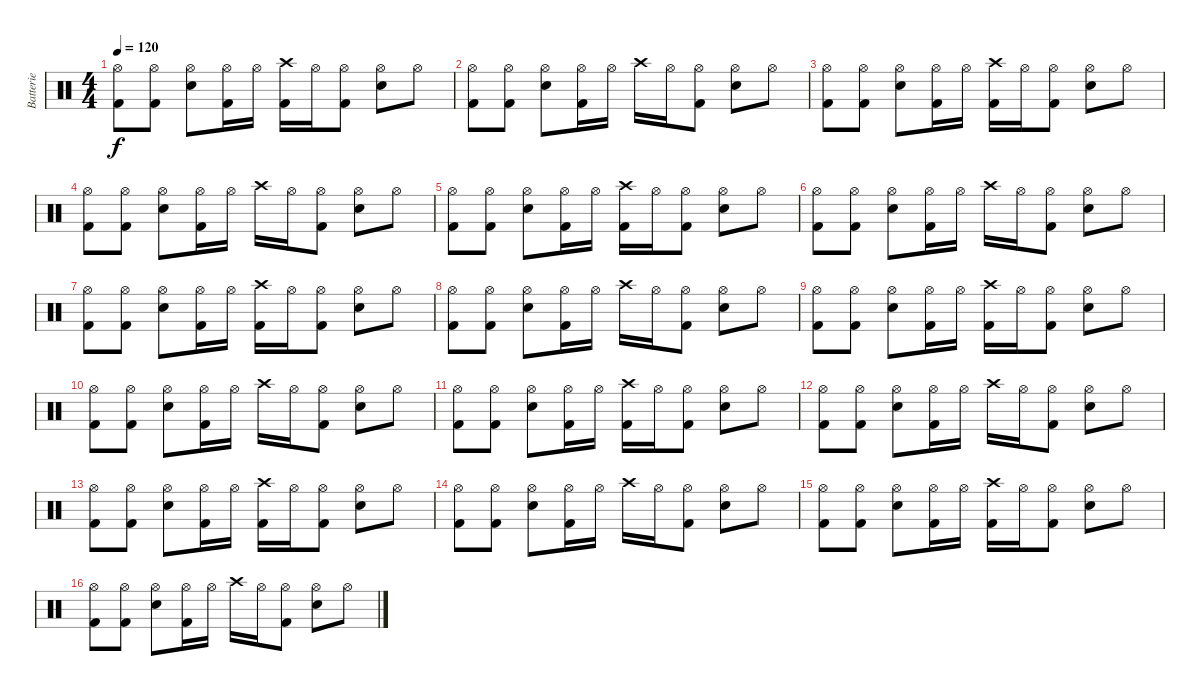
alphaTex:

\track ("Batterie" "Batterie") {instrument percussion}
\staff {score}
\articulation defaults
\ts (4 4)
\tempo 120
\clef neutral
\ks c
("Hi-Hat (open)" "Kick (hit) 2").8{dy f} ("Hi-Hat (open)" "Kick (hit) 2").8 ("Hi-Hat (open)" "Snare (hit) 2").8 ("Hi-Hat (open)" "Kick (hit) 2").16 "Hi-Hat (open)".16 ("Crash high (hit)" "Kick (hit) 2").16 "Hi-Hat (open)".16 ("Hi-Hat (open)" "Kick (hit) 2").8 ("Hi-Hat (open)" "Snare (hit) 2").8 "Hi-Hat (open)".8 |
("Hi-Hat (open)" "Kick (hit) 2").8 ("Hi-Hat (open)" "Kick (hit) 2").8 ("Hi-Hat (open)" "Snare (hit) 2").8 ("Hi-Hat (open)" "Kick (hit) 2").16 "Hi-Hat (open)".16 "Crash high (hit)".16 "Hi-Hat (open)".16 ("Hi-Hat (open)" "Kick (hit) 2").8 ("Hi-Hat (open)" "Snare (hit) 2").8 "Hi-Hat (open)".8 |
("Hi-Hat (open)" "Kick (hit) 2").8 ("Hi-Hat (open)" "Kick (hit) 2").8 ("Hi-Hat (open)" "Snare (hit) 2").8 ("Hi-Hat (open)" "Kick (hit) 2").16 "Hi-Hat (open)".16 ("Crash high (hit)" "Kick (hit) 2").16 "Hi-Hat (open)".16 ("Hi-Hat (open)" "Kick (hit) 2").8 ("Hi-Hat (open)" "Snare (hit) 2").8 "Hi-Hat (open)".8 |
("Hi-Hat (open)" "Kick (hit) 2").8 ("Hi-Hat (open)" "Kick (hit) 2").8 ("Hi-Hat (open)" "Snare (hit) 2").8 ("Hi-Hat (open)" "Kick (hit) 2").16 "Hi-Hat (open)".16 "Crash high (hit)".16 "Hi-Hat (open)".16 ("Hi-Hat (open)" "Kick (hit) 2").8 ("Hi-Hat (open)" "Snare (hit) 2").8 "Hi-Hat (open)".8 |
("Hi-Hat (open)" "Kick (hit) 2").8 ("Hi-Hat (open)" "Kick (hit) 2").8 ("Hi-Hat (open)" "Snare (hit) 2").8 ("Hi-Hat (open)" "Kick (hit) 2").16 "Hi-Hat (open)".16 ("Crash high (hit)" "Kick (hit) 2").16 "Hi-Hat (open)".16 ("Hi-Hat (open)" "Kick (hit) 2").8 ("Hi-Hat (open)" "Snare (hit) 2").8 "Hi-Hat (open)".8 |
("Hi-Hat (open)" "Kick (hit) 2").8 ("Hi-Hat (open)" "Kick (hit) 2").8 ("Hi-Hat (open)" "Snare (hit) 2").8 ("Hi-Hat (open)" "Kick (hit) 2").16 "Hi-Hat (open)".16 "Crash high (hit)".16 "Hi-Hat (open)".16 ("Hi-Hat (open)" "Kick (hit) 2").8 ("Hi-Hat (open)" "Snare (hit) 2").8 "Hi-Hat (open)".8 |
("Hi-Hat (open)" "Kick (hit) 2").8 ("Hi-Hat (open)" "Kick (hit) 2").8 ("Hi-Hat (open)" "Snare (hit) 2").8 ("Hi-Hat (open)" "Kick (hit) 2").16 "Hi-Hat (open)".16 ("Crash high (hit)" "Kick (hit) 2").16 "Hi-Hat (open)".16 ("Hi-Hat (open)" "Kick (hit) 2").8 ("Hi-Hat (open)" "Snare (hit) 2").8 "Hi-Hat (open)".8 |
("Hi-Hat (open)" "Kick (hit) 2").8 ("Hi-Hat (open)" "Kick (hit) 2").8 ("Hi-Hat (open)" "Snare (hit) 2").8 ("Hi-Hat (open)" "Kick (hit) 2").16 "Hi-Hat (open)".16 "Crash high (hit)".16 "Hi-Hat (open)".16 ("Hi-Hat (open)" "Kick (hit) 2").8 ("Hi-Hat (open)" "Snare (hit) 2").8 "Hi-Hat (open)".8 |
("Hi-Hat (open)" "Kick (hit) 2").8 ("Hi-Hat (open)" "Kick (hit) 2").8 ("Hi-Hat (open)" "Snare (hit) 2").8 ("Hi-Hat (open)" "Kick (hit) 2").16 "Hi-Hat (open)".16 ("Crash high (hit)" "Kick (hit) 2").16 "Hi-Hat (open)".16 ("Hi-Hat (open)" "Kick (hit) 2").8 ("Hi-Hat (open)" "Snare (hit) 2").8 "Hi-Hat (open)".8 |
("Hi-Hat (open)" "Kick (hit) 2").8 ("Hi-Hat (open)" "Kick (hit) 2").8 ("Hi-Hat (open)" "Snare (hit) 2").8 ("Hi-Hat (open)" "Kick (hit) 2").16 "Hi-Hat (open)".16 "Crash high (hit)".16 "Hi-Hat (open)".16 ("Hi-Hat (open)" "Kick (hit) 2").8 ("Hi-Hat (open)" "Snare (hit) 2").8 "Hi-Hat (open)".8 |
("Hi-Hat (open)" "Kick (hit) 2").8 ("Hi-Hat (open)" "Kick (hit) 2").8 ("Hi-Hat (open)" "Snare (hit) 2").8 ("Hi-Hat (open)" "Kick (hit) 2").16 "Hi-Hat (open)".16 ("Crash high (hit)" "Kick (hit) 2").16 "Hi-Hat (open)".16 ("Hi-Hat (open)" "Kick (hit) 2").8 ("Hi-Hat (open)" "Snare (hit) 2").8 "Hi-Hat (open)".8 |
("Hi-Hat (open)" "Kick (hit) 2").8 ("Hi-Hat (open)" "Kick (hit) 2").8 ("Hi-Hat (open)" "Snare (hit) 2").8 ("Hi-Hat (open)" "Kick (hit) 2").16 "Hi-Hat (open)".16 "Crash high (hit)".16 "Hi-Hat (open)".16 ("Hi-Hat (open)" "Kick (hit) 2").8 ("Hi-Hat (open)" "Snare (hit) 2").8 "Hi-Hat (open)".8 |
("Hi-Hat (open)" "Kick (hit) 2").8 ("Hi-Hat (open)" "Kick (hit) 2").8 ("Hi-Hat (open)" "Snare (hit) 2").8 ("Hi-Hat (open)" "Kick (hit) 2").16 "Hi-Hat (open)".16 ("Crash high (hit)" "Kick (hit) 2").16 "Hi-Hat (open)".16 ("Hi-Hat (open)" "Kick (hit) 2").8 ("Hi-Hat (open)" "Snare (hit) 2").8 "Hi-Hat (open)".8 |
("Hi-Hat (open)" "Kick (hit) 2").8 ("Hi-Hat (open)" "Kick (hit) 2").8 ("Hi-Hat (open)" "Snare (hit) 2").8 ("Hi-Hat (open)" "Kick (hit) 2").16 "Hi-Hat (open)".16 "Crash high (hit)".16 "Hi-Hat (open)".16 ("Hi-Hat (open)" "Kick (hit) 2").8 ("Hi-Hat (open)" "Snare (hit) 2").8 "Hi-Hat (open)".8 |
("Hi-Hat (open)" "Kick (hit) 2").8 ("Hi-Hat (open)" "Kick (hit) 2").8 ("Hi-Hat (open)" "Snare (hit) 2").8 ("Hi-Hat (open)" "Kick (hit) 2").16 "Hi-Hat (open)".16 ("Crash high (hit)" "Kick (hit) 2").16 "Hi-Hat (open)".16 ("Hi-Hat (open)" "Kick (hit) 2").8 ("Hi-Hat (open)" "Snare (hit) 2").8 "Hi-Hat (open)".8 |
("Hi-Hat (open)" "Kick (hit) 2").8 ("Hi-Hat (open)" "Kick (hit) 2").8 ("Hi-Hat (open)" "Snare (hit) 2").8 ("Hi-Hat (open)" "Kick (hit) 2").16 "Hi-Hat (open)".16 "Crash high (hit)".16 "Hi-Hat (open)".16 ("Hi-Hat (open)" "Kick (hit) 2").8 ("Hi-Hat (open)" "Snare (hit) 2").8 "Hi-Hat (open)".8
